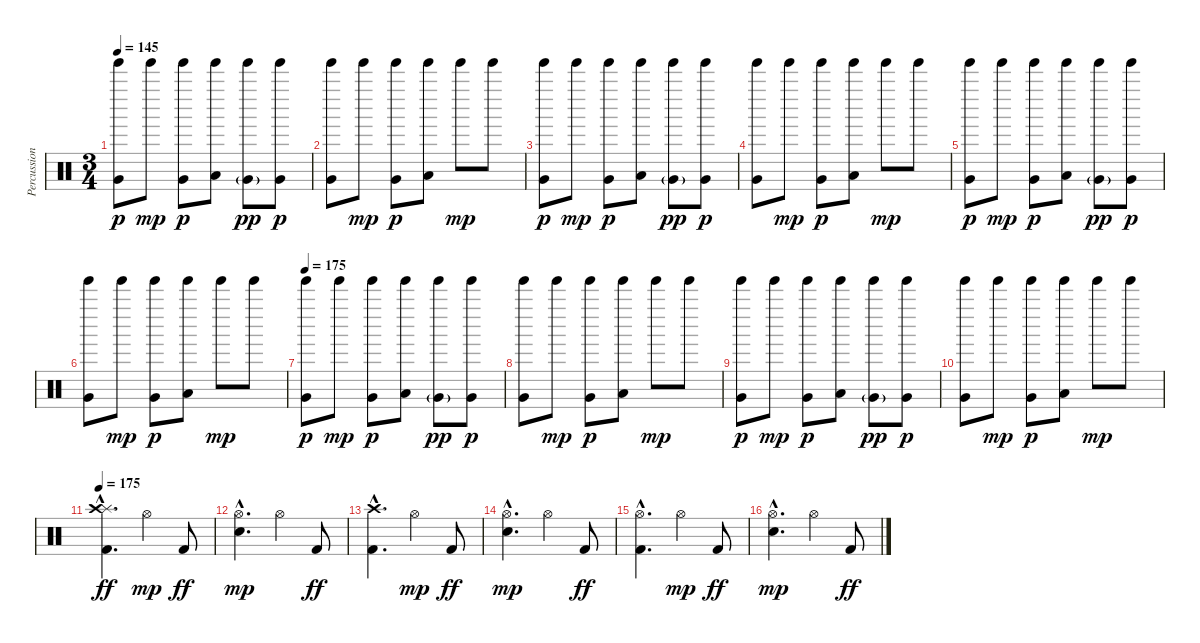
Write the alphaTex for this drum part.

\track ("Percussion" "Percussion") {instrument percussion}
\staff {score}
\articulation defaults
\ts (3 4)
\tempo 145
\clef neutral
\ks c
("Tinkle Bell (hit)" "Very Low Tom (hit)").8{dy p} "Tinkle Bell (hit)".8{dy mp} ("Tinkle Bell (hit)" "Very Low Tom (hit)").8{dy p} ("Tinkle Bell (hit)" "Low Floor Tom (hit)").8 ("Tinkle Bell (hit)" "Very Low Tom (hit)"{g}).8{dy pp} ("Tinkle Bell (hit)" "Very Low Tom (hit)").8{dy p} |
("Tinkle Bell (hit)" "Very Low Tom (hit)").8 "Tinkle Bell (hit)".8{dy mp} ("Tinkle Bell (hit)" "Very Low Tom (hit)").8{dy p} ("Tinkle Bell (hit)" "Low Floor Tom (hit)").8 "Tinkle Bell (hit)".8{dy mp} "Tinkle Bell (hit)".8 |
("Tinkle Bell (hit)" "Very Low Tom (hit)").8{dy p} "Tinkle Bell (hit)".8{dy mp} ("Tinkle Bell (hit)" "Very Low Tom (hit)").8{dy p} ("Tinkle Bell (hit)" "Low Floor Tom (hit)").8 ("Tinkle Bell (hit)" "Very Low Tom (hit)"{g}).8{dy pp} ("Tinkle Bell (hit)" "Very Low Tom (hit)").8{dy p} |
("Tinkle Bell (hit)" "Very Low Tom (hit)").8 "Tinkle Bell (hit)".8{dy mp} ("Tinkle Bell (hit)" "Very Low Tom (hit)").8{dy p} ("Tinkle Bell (hit)" "Low Floor Tom (hit)").8 "Tinkle Bell (hit)".8{dy mp} "Tinkle Bell (hit)".8 |
("Tinkle Bell (hit)" "Very Low Tom (hit)").8{dy p} "Tinkle Bell (hit)".8{dy mp} ("Tinkle Bell (hit)" "Very Low Tom (hit)").8{dy p} ("Tinkle Bell (hit)" "Low Floor Tom (hit)").8 ("Tinkle Bell (hit)" "Very Low Tom (hit)"{g}).8{dy pp} ("Tinkle Bell (hit)" "Very Low Tom (hit)").8{dy p} |
("Tinkle Bell (hit)" "Very Low Tom (hit)").8 "Tinkle Bell (hit)".8{dy mp} ("Tinkle Bell (hit)" "Very Low Tom (hit)").8{dy p} ("Tinkle Bell (hit)" "Low Floor Tom (hit)").8 "Tinkle Bell (hit)".8{dy mp} "Tinkle Bell (hit)".8 |
\tempo 175
("Tinkle Bell (hit)" "Very Low Tom (hit)").8{dy p} "Tinkle Bell (hit)".8{dy mp} ("Tinkle Bell (hit)" "Very Low Tom (hit)").8{dy p} ("Tinkle Bell (hit)" "Low Floor Tom (hit)").8 ("Tinkle Bell (hit)" "Very Low Tom (hit)"{g}).8{dy pp} ("Tinkle Bell (hit)" "Very Low Tom (hit)").8{dy p} |
("Tinkle Bell (hit)" "Very Low Tom (hit)").8 "Tinkle Bell (hit)".8{dy mp} ("Tinkle Bell (hit)" "Very Low Tom (hit)").8{dy p} ("Tinkle Bell (hit)" "Low Floor Tom (hit)").8 "Tinkle Bell (hit)".8{dy mp} "Tinkle Bell (hit)".8 |
("Tinkle Bell (hit)" "Very Low Tom (hit)").8{dy p} "Tinkle Bell (hit)".8{dy mp} ("Tinkle Bell (hit)" "Very Low Tom (hit)").8{dy p} ("Tinkle Bell (hit)" "Low Floor Tom (hit)").8 ("Tinkle Bell (hit)" "Very Low Tom (hit)"{g}).8{dy pp} ("Tinkle Bell (hit)" "Very Low Tom (hit)").8{dy p} |
("Tinkle Bell (hit)" "Very Low Tom (hit)").8 "Tinkle Bell (hit)".8{dy mp} ("Tinkle Bell (hit)" "Very Low Tom (hit)").8{dy p} ("Tinkle Bell (hit)" "Low Floor Tom (hit)").8 "Tinkle Bell (hit)".8{dy mp} "Tinkle Bell (hit)".8 |
\tempo 175
("Splash (hit)"{hac} "Crash high (hit)"{hac} "Kick (hit) 2"{hac}).4{d dy ff} "Hi-Hat (open)".4{dy mp} "Kick (hit) 2".8{dy ff} |
("Hi-Hat (open)"{hac} "Snare (hit) 2"{hac}).4{d dy mp} "Hi-Hat (open)".4 "Kick (hit) 2".8{dy ff} |
("Crash high (hit)"{hac} "Kick (hit) 2"{hac}).4{d} "Hi-Hat (open)".4{dy mp} "Kick (hit) 2".8{dy ff} |
("Hi-Hat (open)"{hac} "Snare (hit) 2"{hac}).4{d dy mp} "Hi-Hat (open)".4 "Kick (hit) 2".8{dy ff} |
("Hi-Hat (open)"{hac} "Kick (hit) 2"{hac}).4{d} "Hi-Hat (open)".4{dy mp} "Kick (hit) 2".8{dy ff} |
("Hi-Hat (open)"{hac} "Snare (hit) 2"{hac}).4{d dy mp} "Hi-Hat (open)".4 "Kick (hit) 2".8{dy ff}
